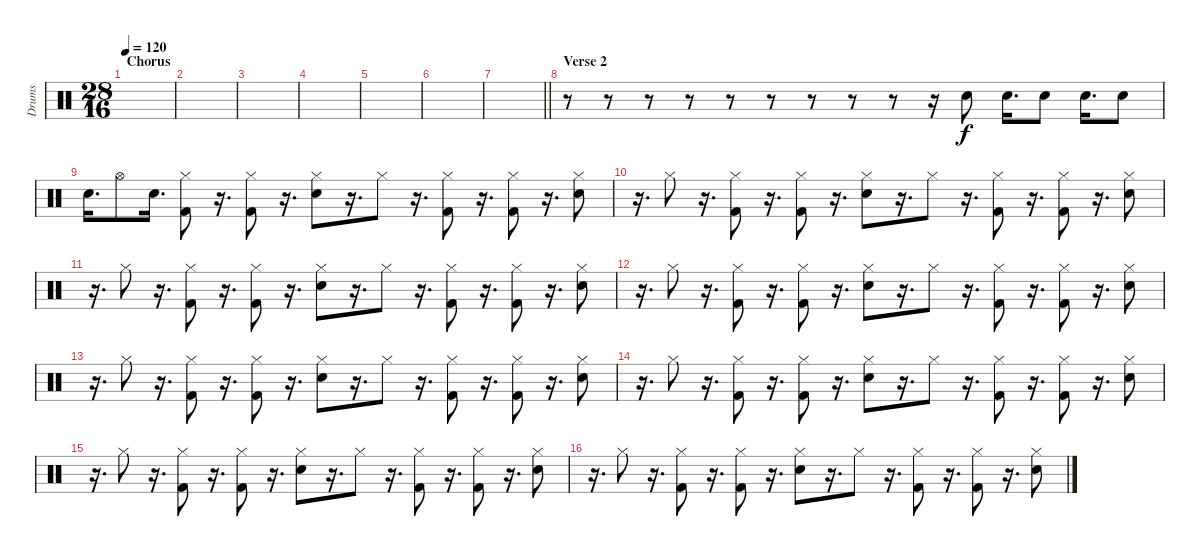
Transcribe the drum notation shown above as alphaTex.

\track ("Drums" "Drums") {instrument percussion}
\staff {score}
\articulation defaults
\ts (28 16)
\section ("" "Chorus ")
\tempo 120
\clef neutral
\ks c
|
|
|
|
|
|
\barLineRight lightlight
|
\section ("" "Verse 2")
r.8 r.8 r.8 r.8 r.8 r.8 r.8 r.8 r.8 r.16 "Snare (hit) 2".8 "Electric Snare (hit)".16{d} "Electric Snare (hit)".8 "Snare (hit) 2".16{d} "Electric Snare (hit)".8 |
"Snare (hit) 2".16{d} "Hi-Hat (open)".8 "Electric Snare (hit)".16{d} ("Hi-Hat (closed)" "Kick (hit) 2").8 r.16{d} ("Hi-Hat (closed)" "Kick (hit) 2").8 r.16{d} ("Hi-Hat (closed)" "Snare (hit) 2").8 r.16{d} "Hi-Hat (closed)".8 r.16{d} ("Hi-Hat (closed)" "Kick (hit) 2").8 r.16{d} ("Hi-Hat (closed)" "Kick (hit) 2").8 r.16{d} ("Hi-Hat (closed)" "Snare (hit) 2").8 |
r.16{d} "Hi-Hat (closed)".8 r.16{d} ("Hi-Hat (closed)" "Kick (hit) 2").8 r.16{d} ("Hi-Hat (closed)" "Kick (hit) 2").8 r.16{d} ("Hi-Hat (closed)" "Snare (hit) 2").8 r.16{d} "Hi-Hat (closed)".8 r.16{d} ("Hi-Hat (closed)" "Kick (hit) 2").8 r.16{d} ("Hi-Hat (closed)" "Kick (hit) 2").8 r.16{d} ("Hi-Hat (closed)" "Snare (hit) 2").8 |
r.16{d} "Hi-Hat (closed)".8 r.16{d} ("Hi-Hat (closed)" "Kick (hit) 2").8 r.16{d} ("Hi-Hat (closed)" "Kick (hit) 2").8 r.16{d} ("Hi-Hat (closed)" "Snare (hit) 2").8 r.16{d} "Hi-Hat (closed)".8 r.16{d} ("Hi-Hat (closed)" "Kick (hit) 2").8 r.16{d} ("Hi-Hat (closed)" "Kick (hit) 2").8 r.16{d} ("Hi-Hat (closed)" "Snare (hit) 2").8 |
r.16{d} "Hi-Hat (closed)".8 r.16{d} ("Hi-Hat (closed)" "Kick (hit) 2").8 r.16{d} ("Hi-Hat (closed)" "Kick (hit) 2").8 r.16{d} ("Hi-Hat (closed)" "Snare (hit) 2").8 r.16{d} "Hi-Hat (closed)".8 r.16{d} ("Hi-Hat (closed)" "Kick (hit) 2").8 r.16{d} ("Hi-Hat (closed)" "Kick (hit) 2").8 r.16{d} ("Hi-Hat (closed)" "Snare (hit) 2").8 |
r.16{d} "Hi-Hat (closed)".8 r.16{d} ("Hi-Hat (closed)" "Kick (hit) 2").8 r.16{d} ("Hi-Hat (closed)" "Kick (hit) 2").8 r.16{d} ("Hi-Hat (closed)" "Snare (hit) 2").8 r.16{d} "Hi-Hat (closed)".8 r.16{d} ("Hi-Hat (closed)" "Kick (hit) 2").8 r.16{d} ("Hi-Hat (closed)" "Kick (hit) 2").8 r.16{d} ("Hi-Hat (closed)" "Snare (hit) 2").8 |
r.16{d} "Hi-Hat (closed)".8 r.16{d} ("Hi-Hat (closed)" "Kick (hit) 2").8 r.16{d} ("Hi-Hat (closed)" "Kick (hit) 2").8 r.16{d} ("Hi-Hat (closed)" "Snare (hit) 2").8 r.16{d} "Hi-Hat (closed)".8 r.16{d} ("Hi-Hat (closed)" "Kick (hit) 2").8 r.16{d} ("Hi-Hat (closed)" "Kick (hit) 2").8 r.16{d} ("Hi-Hat (closed)" "Snare (hit) 2").8 |
r.16{d} "Hi-Hat (closed)".8 r.16{d} ("Hi-Hat (closed)" "Kick (hit) 2").8 r.16{d} ("Hi-Hat (closed)" "Kick (hit) 2").8 r.16{d} ("Hi-Hat (closed)" "Snare (hit) 2").8 r.16{d} "Hi-Hat (closed)".8 r.16{d} ("Hi-Hat (closed)" "Kick (hit) 2").8 r.16{d} ("Hi-Hat (closed)" "Kick (hit) 2").8 r.16{d} ("Hi-Hat (closed)" "Snare (hit) 2").8 |
r.16{d} "Hi-Hat (closed)".8 r.16{d} ("Hi-Hat (closed)" "Kick (hit) 2").8 r.16{d} ("Hi-Hat (closed)" "Kick (hit) 2").8 r.16{d} ("Hi-Hat (closed)" "Snare (hit) 2").8 r.16{d} "Hi-Hat (closed)".8 r.16{d} ("Hi-Hat (closed)" "Kick (hit) 2").8 r.16{d} ("Hi-Hat (closed)" "Kick (hit) 2").8 r.16{d} ("Hi-Hat (closed)" "Snare (hit) 2").8
